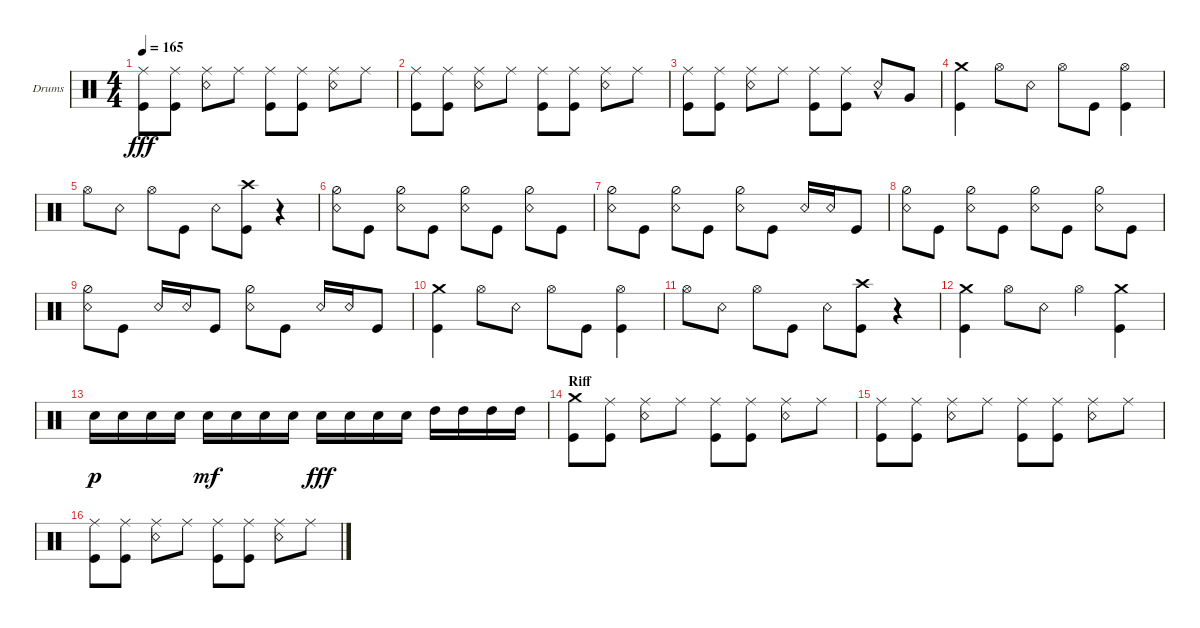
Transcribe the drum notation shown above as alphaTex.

\defaultSystemsLayout 4
\bracketExtendMode groupsimilarinstruments
\firstSystemTrackNameOrientation horizontal
\otherSystemsTrackNameOrientation horizontal
\track ("Drums" "Drums") {instrument percussion}
\staff {score}
\articulation defaults
\ts (4 4)
\tempo 165
\clef neutral
\ks c
("Ride (middle)" "Kick (hit)").8{dy fff} ("Ride (middle)" "Kick (hit)").8 ("Ride (middle)" "Snare (rim shot)").8 "Ride (middle)".8 ("Ride (middle)" "Kick (hit)").8 ("Ride (middle)" "Kick (hit)").8 ("Ride (middle)" "Snare (rim shot)").8 "Ride (middle)".8 |
("Ride (middle)" "Kick (hit)").8 ("Ride (middle)" "Kick (hit)").8 ("Ride (middle)" "Snare (rim shot)").8 "Ride (middle)".8 ("Ride (middle)" "Kick (hit)").8 ("Ride (middle)" "Kick (hit)").8 ("Ride (middle)" "Snare (rim shot)").8 "Ride (middle)".8 |
("Ride (middle)" "Kick (hit)").8 ("Ride (middle)" "Kick (hit)").8 ("Ride (middle)" "Snare (rim shot)").8 "Ride (middle)".8 ("Ride (middle)" "Kick (hit)").8 ("Ride (middle)" "Kick (hit)").8 "Snare (rim shot)"{hac}.8 "Very Low Tom (hit)".8 |
("Kick (hit)" "Crash medium (hit)").4 "Hi-Hat (open)".8 "Snare (rim shot)".8 "Hi-Hat (open)".8 "Kick (hit)".8 ("Kick (hit)" "Hi-Hat (open)").4 |
"Hi-Hat (open)".8 "Snare (rim shot)".8 "Hi-Hat (open)".8 "Kick (hit)".8 "Snare (rim shot)".8 ("Kick (hit)" "Crash high (hit)").8 r.4 |
("Hi-Hat (half)" "Snare (rim shot)").8 "Kick (hit)".8 ("Hi-Hat (half)" "Snare (rim shot)").8 "Kick (hit)".8 ("Hi-Hat (half)" "Snare (rim shot)").8 "Kick (hit)".8 ("Hi-Hat (half)" "Snare (rim shot)").8 "Kick (hit)".8 |
("Hi-Hat (half)" "Snare (rim shot)").8 "Kick (hit)".8 ("Hi-Hat (half)" "Snare (rim shot)").8 "Kick (hit)".8 ("Hi-Hat (half)" "Snare (rim shot)").8 "Kick (hit)".8 "Snare (rim shot)".16 "Snare (rim shot)".16 "Kick (hit)".8 |
("Hi-Hat (half)" "Snare (rim shot)").8 "Kick (hit)".8 ("Hi-Hat (half)" "Snare (rim shot)").8 "Kick (hit)".8 ("Hi-Hat (half)" "Snare (rim shot)").8 "Kick (hit)".8 ("Hi-Hat (half)" "Snare (rim shot)").8 "Kick (hit)".8 |
("Hi-Hat (half)" "Snare (rim shot)").8 "Kick (hit)".8 "Snare (rim shot)".16 "Snare (rim shot)".16 "Kick (hit)".8 ("Hi-Hat (half)" "Snare (rim shot)").8 "Kick (hit)".8 "Snare (rim shot)".16 "Snare (rim shot)".16 "Kick (hit)".8 |
("Kick (hit)" "Crash medium (hit)").4 "Hi-Hat (open)".8 "Snare (rim shot)".8 "Hi-Hat (open)".8 "Kick (hit)".8 ("Kick (hit)" "Hi-Hat (open)").4 |
"Hi-Hat (open)".8 "Snare (rim shot)".8 "Hi-Hat (open)".8 "Kick (hit)".8 "Snare (rim shot)".8 ("Crash high (hit)" "Kick (hit)").8 r.4 |
("Kick (hit)" "Crash medium (hit)").4 "Hi-Hat (open)".8 "Snare (rim shot)".8 "Hi-Hat (open)".4 ("Kick (hit)" "Crash medium (hit)").4 |
"Snare (hit) 2".16{dy p} "Snare (hit) 2".16 "Snare (hit) 2".16 "Snare (hit) 2".16 "Snare (hit) 2".16{dy mf} "Snare (hit) 2".16 "Snare (hit) 2".16 "Snare (hit) 2".16 "Snare (hit) 2".16{dy fff} "Snare (hit) 2".16 "Snare (hit) 2".16 "Snare (hit) 2".16 "High Tom (hit)".16 "High Tom (hit)".16 "High Tom (hit)".16 "High Tom (hit)".16 |
\section ("" "Riff")
("Crash medium (hit)" "Kick (hit)").8 ("Ride (middle)" "Kick (hit)").8 ("Ride (middle)" "Snare (rim shot)").8 "Ride (middle)".8 ("Ride (middle)" "Kick (hit)").8 ("Ride (middle)" "Kick (hit)").8 ("Ride (middle)" "Snare (rim shot)").8 "Ride (middle)".8 |
("Ride (middle)" "Kick (hit)").8 ("Ride (middle)" "Kick (hit)").8 ("Ride (middle)" "Snare (rim shot)").8 "Ride (middle)".8 ("Ride (middle)" "Kick (hit)").8 ("Ride (middle)" "Kick (hit)").8 ("Ride (middle)" "Snare (rim shot)").8 "Ride (middle)".8 |
("Ride (middle)" "Kick (hit)").8 ("Ride (middle)" "Kick (hit)").8 ("Ride (middle)" "Snare (rim shot)").8 "Ride (middle)".8 ("Ride (middle)" "Kick (hit)").8 ("Ride (middle)" "Kick (hit)").8 ("Ride (middle)" "Snare (rim shot)").8 "Ride (middle)".8
